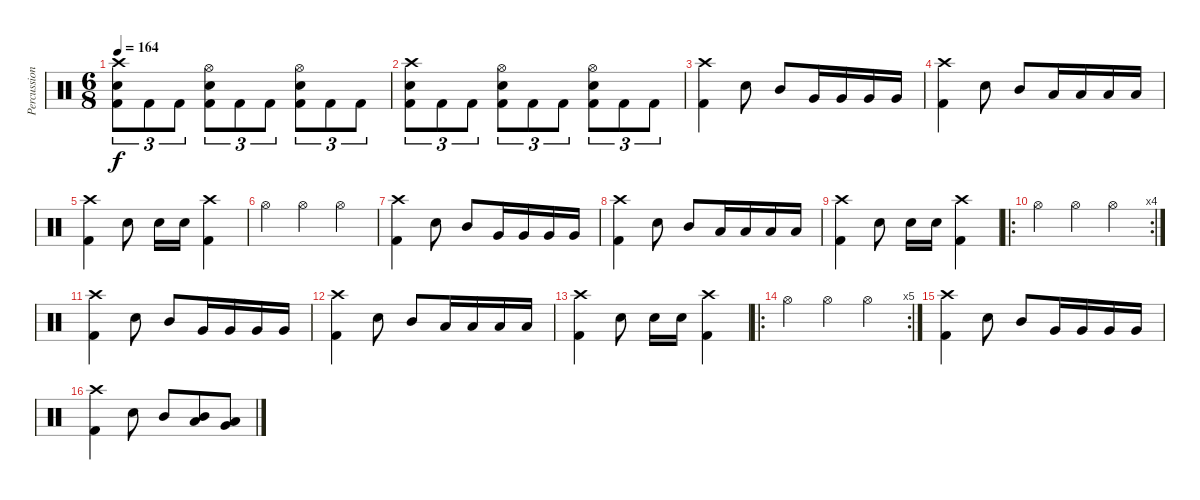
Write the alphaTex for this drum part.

\track ("Percussion" "Percussion") {instrument percussion}
\staff {score}
\articulation defaults
\ts (6 8)
\tempo 164
\clef neutral
\ks c
("Crash high (hit)" "Snare (hit) 2" "Kick (hit) 2").8{tu (3 2) dy f} "Kick (hit) 2".8{tu (3 2)} "Kick (hit) 2".8{tu (3 2)} ("Hi-Hat (open)" "Snare (hit) 2" "Kick (hit) 2").8{tu (3 2)} "Kick (hit) 2".8{tu (3 2)} "Kick (hit) 2".8{tu (3 2)} ("Hi-Hat (open)" "Snare (hit) 2" "Kick (hit) 2").8{tu (3 2)} "Kick (hit) 2".8{tu (3 2)} "Kick (hit) 2".8{tu (3 2)} |
("Crash high (hit)" "Snare (hit) 2" "Kick (hit) 2").8{tu (3 2)} "Kick (hit) 2".8{tu (3 2)} "Kick (hit) 2".8{tu (3 2)} ("Hi-Hat (open)" "Snare (hit) 2" "Kick (hit) 2").8{tu (3 2)} "Kick (hit) 2".8{tu (3 2)} "Kick (hit) 2".8{tu (3 2)} ("Hi-Hat (open)" "Snare (hit) 2" "Kick (hit) 2").8{tu (3 2)} "Kick (hit) 2".8{tu (3 2)} "Kick (hit) 2".8{tu (3 2)} |
("Crash high (hit)" "Kick (hit) 2").4 "Snare (hit) 2".8 "Mid Tom (hit)".8 "Very Low Tom (hit)".16 "Very Low Tom (hit)".16 "Very Low Tom (hit)".16 "Very Low Tom (hit)".16 |
("Crash high (hit)" "Kick (hit) 2").4 "Snare (hit) 2".8 "Mid Tom (hit)".8 "Low Tom (hit)".16 "Low Tom (hit)".16 "Low Tom (hit)".16 "Low Tom (hit)".16 |
("Crash high (hit)" "Kick (hit) 2").4 "Snare (hit) 2".8 "Snare (hit) 2".16 "Snare (hit) 2".16 ("Crash high (hit)" "Kick (hit) 2").4 |
"Hi-Hat (open)".4 "Hi-Hat (open)".4 "Hi-Hat (open)".4 |
("Crash high (hit)" "Kick (hit) 2").4 "Snare (hit) 2".8 "Mid Tom (hit)".8 "Very Low Tom (hit)".16 "Very Low Tom (hit)".16 "Very Low Tom (hit)".16 "Very Low Tom (hit)".16 |
("Crash high (hit)" "Kick (hit) 2").4 "Snare (hit) 2".8 "Mid Tom (hit)".8 "Low Tom (hit)".16 "Low Tom (hit)".16 "Low Tom (hit)".16 "Low Tom (hit)".16 |
("Crash high (hit)" "Kick (hit) 2").4 "Snare (hit) 2".8 "Snare (hit) 2".16 "Snare (hit) 2".16 ("Crash high (hit)" "Kick (hit) 2").4 |
\ro
\rc 4 "Hi-Hat (open)".4 "Hi-Hat (open)".4 "Hi-Hat (open)".4
|
("Crash high (hit)" "Kick (hit) 2").4 "Snare (hit) 2".8 "Mid Tom (hit)".8 "Very Low Tom (hit)".16 "Very Low Tom (hit)".16 "Very Low Tom (hit)".16 "Very Low Tom (hit)".16 |
("Crash high (hit)" "Kick (hit) 2").4 "Snare (hit) 2".8 "Mid Tom (hit)".8 "Low Tom (hit)".16 "Low Tom (hit)".16 "Low Tom (hit)".16 "Low Tom (hit)".16 |
("Crash high (hit)" "Kick (hit) 2").4 "Snare (hit) 2".8 "Snare (hit) 2".16 "Snare (hit) 2".16 ("Crash high (hit)" "Kick (hit) 2").4 |
\ro
\rc 5 "Hi-Hat (open)".4 "Hi-Hat (open)".4 "Hi-Hat (open)".4
|
("Crash high (hit)" "Kick (hit) 2").4 "Snare (hit) 2".8 "Mid Tom (hit)".8 "Very Low Tom (hit)".16 "Very Low Tom (hit)".16 "Very Low Tom (hit)".16 "Very Low Tom (hit)".16 |
("Crash high (hit)" "Kick (hit) 2").4 "Snare (hit) 2".8 "Mid Tom (hit)".8 ("Mid Tom (hit)" "Low Tom (hit)").8 ("Low Tom (hit)" "Very Low Tom (hit)").8
